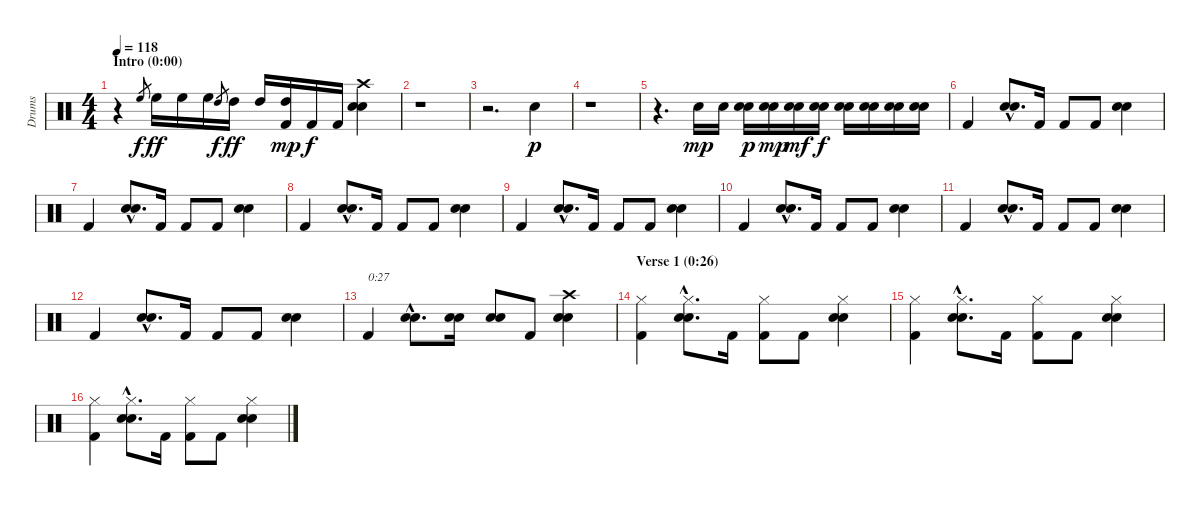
\track ("Drums" "Drums") {instrument percussion}
\staff {score}
\articulation defaults
\ts (4 4)
\section ("" "Intro (0:00)")
\tempo 118
\clef neutral
\ks c
r.4{dy f} "High Floor Tom (hit)".8{gr} "High Floor Tom (hit)".16{dy ff} "High Floor Tom (hit)".16 "High Floor Tom (hit)".16 "High Tom (hit)".8{gr dy f} "High Tom (hit)".16{dy ff} "High Tom (hit)".16 ("High Tom (hit)" "Kick (hit) 2").16{dy mp} "Kick (hit) 2".16{dy f} "Kick (hit) 2".16 ("Crash high (hit)" "Electric Snare (hit)" "Snare (hit) 2").4 |
r.1 |
r.2{d} "Snare (hit) 2".4{dy p} |
r.1 |
r.4{d} "Electric Snare (hit)".16{dy mp} "Electric Snare (hit)".16 ("Electric Snare (hit)" "Snare (hit) 2").16{dy p} ("Electric Snare (hit)" "Snare (hit) 2").16{dy mp} ("Electric Snare (hit)" "Snare (hit) 2").16{dy mf} ("Electric Snare (hit)" "Snare (hit) 2").16{dy f} ("Electric Snare (hit)" "Snare (hit) 2").16 ("Electric Snare (hit)" "Snare (hit) 2").16 ("Electric Snare (hit)" "Snare (hit) 2").16 ("Electric Snare (hit)" "Snare (hit) 2").16 |
"Kick (hit) 2".4 ("Electric Snare (hit)"{hac} "Snare (hit) 2"{hac}).8{d} "Kick (hit) 2".16 "Kick (hit) 2".8 "Kick (hit) 2".8 ("Electric Snare (hit)" "Snare (hit) 2").4 |
"Kick (hit) 2".4 ("Electric Snare (hit)"{hac} "Snare (hit) 2"{hac}).8{d} "Kick (hit) 2".16 "Kick (hit) 2".8 "Kick (hit) 2".8 ("Electric Snare (hit)" "Snare (hit) 2").4 |
"Kick (hit) 2".4 ("Electric Snare (hit)"{hac} "Snare (hit) 2"{hac}).8{d} "Kick (hit) 2".16 "Kick (hit) 2".8 "Kick (hit) 2".8 ("Electric Snare (hit)" "Snare (hit) 2").4 |
"Kick (hit) 2".4 ("Electric Snare (hit)"{hac} "Snare (hit) 2"{hac}).8{d} "Kick (hit) 2".16 "Kick (hit) 2".8 "Kick (hit) 2".8 ("Electric Snare (hit)" "Snare (hit) 2").4 |
"Kick (hit) 2".4 ("Electric Snare (hit)"{hac} "Snare (hit) 2"{hac}).8{d} "Kick (hit) 2".16 "Kick (hit) 2".8 "Kick (hit) 2".8 ("Electric Snare (hit)" "Snare (hit) 2").4 |
"Kick (hit) 2".4 ("Electric Snare (hit)"{hac} "Snare (hit) 2"{hac}).8{d} "Kick (hit) 2".16 "Kick (hit) 2".8 "Kick (hit) 2".8 ("Electric Snare (hit)" "Snare (hit) 2").4 |
"Kick (hit) 2".4 ("Electric Snare (hit)"{hac} "Snare (hit) 2"{hac}).8{d} "Kick (hit) 2".16 "Kick (hit) 2".8 "Kick (hit) 2".8 ("Electric Snare (hit)" "Snare (hit) 2").4 |
"Kick (hit) 2".4{txt "0:27"} ("Electric Snare (hit)"{hac} "Snare (hit) 2"{hac}).8{d} ("Electric Snare (hit)" "Snare (hit) 2").16 ("Electric Snare (hit)" "Snare (hit) 2").8 "Kick (hit) 2".8 ("Crash high (hit)" "Electric Snare (hit)" "Snare (hit) 2").4 |
\section ("" "Verse 1 (0:26)")
("Hi-Hat (closed)" "Kick (hit) 2").4 ("Hi-Hat (closed)"{hac} "Electric Snare (hit)"{hac} "Snare (hit) 2"{hac}).8{d} "Kick (hit) 2".16 ("Hi-Hat (closed)" "Kick (hit) 2").8 "Kick (hit) 2".8 ("Hi-Hat (closed)" "Electric Snare (hit)" "Snare (hit) 2").4 |
("Hi-Hat (closed)" "Kick (hit) 2").4 ("Hi-Hat (closed)"{hac} "Electric Snare (hit)"{hac} "Snare (hit) 2"{hac}).8{d} "Kick (hit) 2".16 ("Hi-Hat (closed)" "Kick (hit) 2").8 "Kick (hit) 2".8 ("Hi-Hat (closed)" "Electric Snare (hit)" "Snare (hit) 2").4 |
("Hi-Hat (closed)" "Kick (hit) 2").4 ("Hi-Hat (closed)"{hac} "Electric Snare (hit)"{hac} "Snare (hit) 2"{hac}).8{d} "Kick (hit) 2".16 ("Hi-Hat (closed)" "Kick (hit) 2").8 "Kick (hit) 2".8 ("Hi-Hat (closed)" "Electric Snare (hit)" "Snare (hit) 2").4
